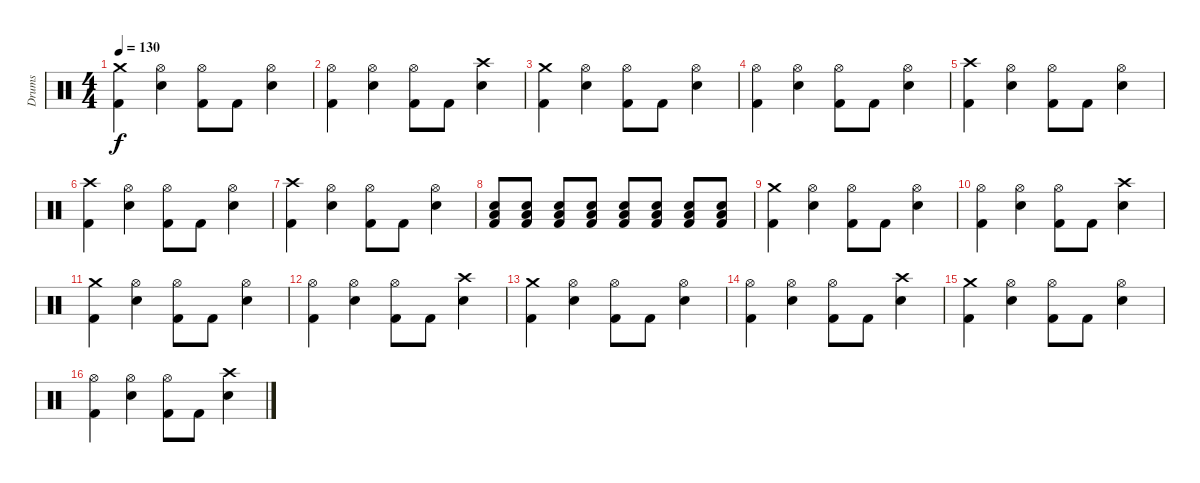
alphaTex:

\track ("Drums" "Drums") {instrument percussion}
\staff {score}
\articulation defaults
\ts (4 4)
\tempo 130
\clef neutral
\ks c
("Crash medium (hit)" "Kick (hit) 2").4{dy f} ("Hi-Hat (open)" "Snare (hit) 2").4 ("Hi-Hat (open)" "Kick (hit) 2").8 "Kick (hit) 2".8 ("Hi-Hat (open)" "Snare (hit) 2").4 |
("Hi-Hat (open)" "Kick (hit) 2").4 ("Hi-Hat (open)" "Snare (hit) 2").4 ("Hi-Hat (open)" "Kick (hit) 2").8 "Kick (hit) 2".8 ("Crash high (hit)" "Snare (hit) 2").4 |
("Crash medium (hit)" "Kick (hit) 2").4 ("Hi-Hat (open)" "Snare (hit) 2").4 ("Hi-Hat (open)" "Kick (hit) 2").8 "Kick (hit) 2".8 ("Hi-Hat (open)" "Snare (hit) 2").4 |
("Hi-Hat (open)" "Kick (hit) 2").4 ("Hi-Hat (open)" "Snare (hit) 2").4 ("Hi-Hat (open)" "Kick (hit) 2").8 "Kick (hit) 2".8 ("Hi-Hat (open)" "Snare (hit) 2").4 |
("Crash high (hit)" "Kick (hit) 2").4 ("Hi-Hat (open)" "Snare (hit) 2").4 ("Hi-Hat (open)" "Kick (hit) 2").8 "Kick (hit) 2".8 ("Hi-Hat (open)" "Snare (hit) 2").4 |
("Crash high (hit)" "Kick (hit) 2").4 ("Hi-Hat (open)" "Snare (hit) 2").4 ("Hi-Hat (open)" "Kick (hit) 2").8 "Kick (hit) 2".8 ("Hi-Hat (open)" "Snare (hit) 2").4 |
("Crash high (hit)" "Kick (hit) 2").4 ("Hi-Hat (open)" "Snare (hit) 2").4 ("Hi-Hat (open)" "Kick (hit) 2").8 "Kick (hit) 2".8 ("Hi-Hat (open)" "Snare (hit) 2").4 |
("Snare (hit) 2" "Low Floor Tom (hit)" "Kick (hit) 2").8 ("Snare (hit) 2" "Low Floor Tom (hit)" "Kick (hit) 2").8 ("Snare (hit) 2" "Low Floor Tom (hit)" "Kick (hit) 2").8 ("Snare (hit) 2" "Low Floor Tom (hit)" "Kick (hit) 2").8 ("Snare (hit) 2" "Low Floor Tom (hit)" "Kick (hit) 2").8 ("Snare (hit) 2" "Low Floor Tom (hit)" "Kick (hit) 2").8 ("Snare (hit) 2" "Low Floor Tom (hit)" "Kick (hit) 2").8 ("Snare (hit) 2" "Low Floor Tom (hit)" "Kick (hit) 2").8 |
("Crash medium (hit)" "Kick (hit) 2").4 ("Hi-Hat (open)" "Snare (hit) 2").4 ("Hi-Hat (open)" "Kick (hit) 2").8 "Kick (hit) 2".8 ("Hi-Hat (open)" "Snare (hit) 2").4 |
("Hi-Hat (open)" "Kick (hit) 2").4 ("Hi-Hat (open)" "Snare (hit) 2").4 ("Hi-Hat (open)" "Kick (hit) 2").8 "Kick (hit) 2".8 ("Crash high (hit)" "Snare (hit) 2").4 |
("Crash medium (hit)" "Kick (hit) 2").4 ("Hi-Hat (open)" "Snare (hit) 2").4 ("Hi-Hat (open)" "Kick (hit) 2").8 "Kick (hit) 2".8 ("Hi-Hat (open)" "Snare (hit) 2").4 |
("Hi-Hat (open)" "Kick (hit) 2").4 ("Hi-Hat (open)" "Snare (hit) 2").4 ("Hi-Hat (open)" "Kick (hit) 2").8 "Kick (hit) 2".8 ("Crash high (hit)" "Snare (hit) 2").4 |
("Crash medium (hit)" "Kick (hit) 2").4 ("Hi-Hat (open)" "Snare (hit) 2").4 ("Hi-Hat (open)" "Kick (hit) 2").8 "Kick (hit) 2".8 ("Hi-Hat (open)" "Snare (hit) 2").4 |
("Hi-Hat (open)" "Kick (hit) 2").4 ("Hi-Hat (open)" "Snare (hit) 2").4 ("Hi-Hat (open)" "Kick (hit) 2").8 "Kick (hit) 2".8 ("Crash high (hit)" "Snare (hit) 2").4 |
("Crash medium (hit)" "Kick (hit) 2").4 ("Hi-Hat (open)" "Snare (hit) 2").4 ("Hi-Hat (open)" "Kick (hit) 2").8 "Kick (hit) 2".8 ("Hi-Hat (open)" "Snare (hit) 2").4 |
("Hi-Hat (open)" "Kick (hit) 2").4 ("Hi-Hat (open)" "Snare (hit) 2").4 ("Hi-Hat (open)" "Kick (hit) 2").8 "Kick (hit) 2".8 ("Crash high (hit)" "Snare (hit) 2").4
